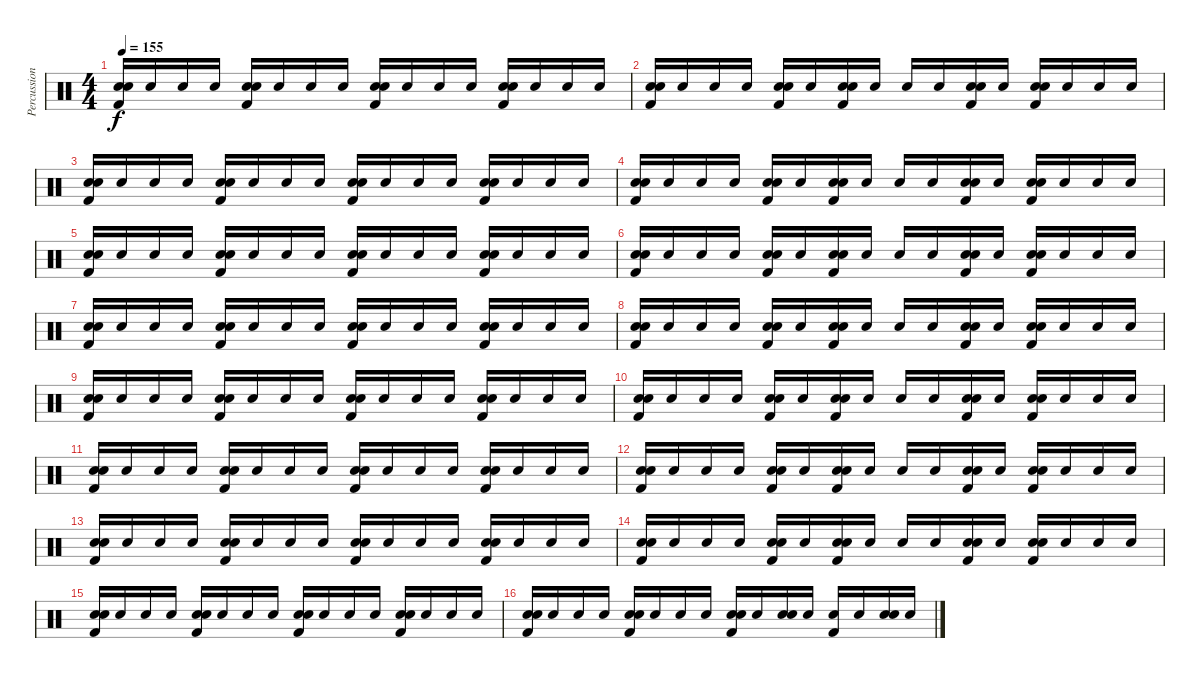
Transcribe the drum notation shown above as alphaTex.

\track ("Percussion" "Percussion") {instrument percussion}
\staff {score}
\articulation defaults
\ts (4 4)
\tempo 155
\clef neutral
\ks c
("Snare (hit) 2" "Snare (hit) 2" "Kick (hit) 2").16{dy f} "Snare (hit) 2".16 "Snare (hit) 2".16 "Snare (hit) 2".16 ("Snare (hit) 2" "Snare (hit) 2" "Kick (hit) 2").16 "Snare (hit) 2".16 "Snare (hit) 2".16 "Snare (hit) 2".16 ("Snare (hit) 2" "Snare (hit) 2" "Kick (hit) 2").16 "Snare (hit) 2".16 "Snare (hit) 2".16 "Snare (hit) 2".16 ("Snare (hit) 2" "Snare (hit) 2" "Kick (hit) 2").16 "Snare (hit) 2".16 "Snare (hit) 2".16 "Snare (hit) 2".16 |
("Snare (hit) 2" "Snare (hit) 2" "Kick (hit) 2").16 "Snare (hit) 2".16 "Snare (hit) 2".16 "Snare (hit) 2".16 ("Snare (hit) 2" "Snare (hit) 2" "Kick (hit) 2").16 "Snare (hit) 2".16 ("Snare (hit) 2" "Snare (hit) 2" "Kick (hit) 2").16 "Snare (hit) 2".16 "Snare (hit) 2".16 "Snare (hit) 2".16 ("Snare (hit) 2" "Snare (hit) 2" "Kick (hit) 2").16 "Snare (hit) 2".16 ("Snare (hit) 2" "Snare (hit) 2" "Kick (hit) 2").16 "Snare (hit) 2".16 "Snare (hit) 2".16 "Snare (hit) 2".16 |
("Snare (hit) 2" "Snare (hit) 2" "Kick (hit) 2").16 "Snare (hit) 2".16 "Snare (hit) 2".16 "Snare (hit) 2".16 ("Snare (hit) 2" "Snare (hit) 2" "Kick (hit) 2").16 "Snare (hit) 2".16 "Snare (hit) 2".16 "Snare (hit) 2".16 ("Snare (hit) 2" "Snare (hit) 2" "Kick (hit) 2").16 "Snare (hit) 2".16 "Snare (hit) 2".16 "Snare (hit) 2".16 ("Snare (hit) 2" "Snare (hit) 2" "Kick (hit) 2").16 "Snare (hit) 2".16 "Snare (hit) 2".16 "Snare (hit) 2".16 |
("Snare (hit) 2" "Snare (hit) 2" "Kick (hit) 2").16 "Snare (hit) 2".16 "Snare (hit) 2".16 "Snare (hit) 2".16 ("Snare (hit) 2" "Snare (hit) 2" "Kick (hit) 2").16 "Snare (hit) 2".16 ("Snare (hit) 2" "Snare (hit) 2" "Kick (hit) 2").16 "Snare (hit) 2".16 "Snare (hit) 2".16 "Snare (hit) 2".16 ("Snare (hit) 2" "Snare (hit) 2" "Kick (hit) 2").16 "Snare (hit) 2".16 ("Snare (hit) 2" "Snare (hit) 2" "Kick (hit) 2").16 "Snare (hit) 2".16 "Snare (hit) 2".16 "Snare (hit) 2".16 |
("Snare (hit) 2" "Snare (hit) 2" "Kick (hit) 2").16 "Snare (hit) 2".16 "Snare (hit) 2".16 "Snare (hit) 2".16 ("Snare (hit) 2" "Snare (hit) 2" "Kick (hit) 2").16 "Snare (hit) 2".16 "Snare (hit) 2".16 "Snare (hit) 2".16 ("Snare (hit) 2" "Snare (hit) 2" "Kick (hit) 2").16 "Snare (hit) 2".16 "Snare (hit) 2".16 "Snare (hit) 2".16 ("Snare (hit) 2" "Snare (hit) 2" "Kick (hit) 2").16 "Snare (hit) 2".16 "Snare (hit) 2".16 "Snare (hit) 2".16 |
("Snare (hit) 2" "Snare (hit) 2" "Kick (hit) 2").16 "Snare (hit) 2".16 "Snare (hit) 2".16 "Snare (hit) 2".16 ("Snare (hit) 2" "Snare (hit) 2" "Kick (hit) 2").16 "Snare (hit) 2".16 ("Snare (hit) 2" "Snare (hit) 2" "Kick (hit) 2").16 "Snare (hit) 2".16 "Snare (hit) 2".16 "Snare (hit) 2".16 ("Snare (hit) 2" "Snare (hit) 2" "Kick (hit) 2").16 "Snare (hit) 2".16 ("Snare (hit) 2" "Snare (hit) 2" "Kick (hit) 2").16 "Snare (hit) 2".16 "Snare (hit) 2".16 "Snare (hit) 2".16 |
("Snare (hit) 2" "Snare (hit) 2" "Kick (hit) 2").16 "Snare (hit) 2".16 "Snare (hit) 2".16 "Snare (hit) 2".16 ("Snare (hit) 2" "Snare (hit) 2" "Kick (hit) 2").16 "Snare (hit) 2".16 "Snare (hit) 2".16 "Snare (hit) 2".16 ("Snare (hit) 2" "Snare (hit) 2" "Kick (hit) 2").16 "Snare (hit) 2".16 "Snare (hit) 2".16 "Snare (hit) 2".16 ("Snare (hit) 2" "Snare (hit) 2" "Kick (hit) 2").16 "Snare (hit) 2".16 "Snare (hit) 2".16 "Snare (hit) 2".16 |
("Snare (hit) 2" "Snare (hit) 2" "Kick (hit) 2").16 "Snare (hit) 2".16 "Snare (hit) 2".16 "Snare (hit) 2".16 ("Snare (hit) 2" "Snare (hit) 2" "Kick (hit) 2").16 "Snare (hit) 2".16 ("Snare (hit) 2" "Snare (hit) 2" "Kick (hit) 2").16 "Snare (hit) 2".16 "Snare (hit) 2".16 "Snare (hit) 2".16 ("Snare (hit) 2" "Snare (hit) 2" "Kick (hit) 2").16 "Snare (hit) 2".16 ("Snare (hit) 2" "Snare (hit) 2" "Kick (hit) 2").16 "Snare (hit) 2".16 "Snare (hit) 2".16 "Snare (hit) 2".16 |
("Snare (hit) 2" "Snare (hit) 2" "Kick (hit) 2").16 "Snare (hit) 2".16 "Snare (hit) 2".16 "Snare (hit) 2".16 ("Snare (hit) 2" "Snare (hit) 2" "Kick (hit) 2").16 "Snare (hit) 2".16 "Snare (hit) 2".16 "Snare (hit) 2".16 ("Snare (hit) 2" "Snare (hit) 2" "Kick (hit) 2").16 "Snare (hit) 2".16 "Snare (hit) 2".16 "Snare (hit) 2".16 ("Snare (hit) 2" "Snare (hit) 2" "Kick (hit) 2").16 "Snare (hit) 2".16 "Snare (hit) 2".16 "Snare (hit) 2".16 |
("Snare (hit) 2" "Snare (hit) 2" "Kick (hit) 2").16 "Snare (hit) 2".16 "Snare (hit) 2".16 "Snare (hit) 2".16 ("Snare (hit) 2" "Snare (hit) 2" "Kick (hit) 2").16 "Snare (hit) 2".16 ("Snare (hit) 2" "Snare (hit) 2" "Kick (hit) 2").16 "Snare (hit) 2".16 "Snare (hit) 2".16 "Snare (hit) 2".16 ("Snare (hit) 2" "Snare (hit) 2" "Kick (hit) 2").16 "Snare (hit) 2".16 ("Snare (hit) 2" "Snare (hit) 2" "Kick (hit) 2").16 "Snare (hit) 2".16 "Snare (hit) 2".16 "Snare (hit) 2".16 |
("Snare (hit) 2" "Snare (hit) 2" "Kick (hit) 2").16 "Snare (hit) 2".16 "Snare (hit) 2".16 "Snare (hit) 2".16 ("Snare (hit) 2" "Snare (hit) 2" "Kick (hit) 2").16 "Snare (hit) 2".16 "Snare (hit) 2".16 "Snare (hit) 2".16 ("Snare (hit) 2" "Snare (hit) 2" "Kick (hit) 2").16 "Snare (hit) 2".16 "Snare (hit) 2".16 "Snare (hit) 2".16 ("Snare (hit) 2" "Snare (hit) 2" "Kick (hit) 2").16 "Snare (hit) 2".16 "Snare (hit) 2".16 "Snare (hit) 2".16 |
("Snare (hit) 2" "Snare (hit) 2" "Kick (hit) 2").16 "Snare (hit) 2".16 "Snare (hit) 2".16 "Snare (hit) 2".16 ("Snare (hit) 2" "Snare (hit) 2" "Kick (hit) 2").16 "Snare (hit) 2".16 ("Snare (hit) 2" "Snare (hit) 2" "Kick (hit) 2").16 "Snare (hit) 2".16 "Snare (hit) 2".16 "Snare (hit) 2".16 ("Snare (hit) 2" "Snare (hit) 2" "Kick (hit) 2").16 "Snare (hit) 2".16 ("Snare (hit) 2" "Snare (hit) 2" "Kick (hit) 2").16 "Snare (hit) 2".16 "Snare (hit) 2".16 "Snare (hit) 2".16 |
("Snare (hit) 2" "Snare (hit) 2" "Kick (hit) 2").16 "Snare (hit) 2".16 "Snare (hit) 2".16 "Snare (hit) 2".16 ("Snare (hit) 2" "Snare (hit) 2" "Kick (hit) 2").16 "Snare (hit) 2".16 "Snare (hit) 2".16 "Snare (hit) 2".16 ("Snare (hit) 2" "Snare (hit) 2" "Kick (hit) 2").16 "Snare (hit) 2".16 "Snare (hit) 2".16 "Snare (hit) 2".16 ("Snare (hit) 2" "Snare (hit) 2" "Kick (hit) 2").16 "Snare (hit) 2".16 "Snare (hit) 2".16 "Snare (hit) 2".16 |
("Snare (hit) 2" "Snare (hit) 2" "Kick (hit) 2").16 "Snare (hit) 2".16 "Snare (hit) 2".16 "Snare (hit) 2".16 ("Snare (hit) 2" "Snare (hit) 2" "Kick (hit) 2").16 "Snare (hit) 2".16 ("Snare (hit) 2" "Snare (hit) 2" "Kick (hit) 2").16 "Snare (hit) 2".16 "Snare (hit) 2".16 "Snare (hit) 2".16 ("Snare (hit) 2" "Snare (hit) 2" "Kick (hit) 2").16 "Snare (hit) 2".16 ("Snare (hit) 2" "Snare (hit) 2" "Kick (hit) 2").16 "Snare (hit) 2".16 "Snare (hit) 2".16 "Snare (hit) 2".16 |
("Snare (hit) 2" "Snare (hit) 2" "Kick (hit) 2").16 "Snare (hit) 2".16 "Snare (hit) 2".16 "Snare (hit) 2".16 ("Snare (hit) 2" "Snare (hit) 2" "Kick (hit) 2").16 "Snare (hit) 2".16 "Snare (hit) 2".16 "Snare (hit) 2".16 ("Snare (hit) 2" "Snare (hit) 2" "Kick (hit) 2").16 "Snare (hit) 2".16 "Snare (hit) 2".16 "Snare (hit) 2".16 ("Snare (hit) 2" "Snare (hit) 2" "Kick (hit) 2").16 "Snare (hit) 2".16 "Snare (hit) 2".16 "Snare (hit) 2".16 |
("Snare (hit) 2" "Snare (hit) 2" "Kick (hit) 2").16 "Snare (hit) 2".16 "Snare (hit) 2".16 "Snare (hit) 2".16 ("Snare (hit) 2" "Snare (hit) 2" "Kick (hit) 2").16 "Snare (hit) 2".16 "Snare (hit) 2".16 "Snare (hit) 2".16 ("Snare (hit) 2" "Snare (hit) 2" "Kick (hit) 2").16 "Snare (hit) 2".16 ("Snare (hit) 2" "Snare (hit) 2").16 "Snare (hit) 2".16 ("Snare (hit) 2" "Kick (hit) 2").16 "Snare (hit) 2".16 ("Snare (hit) 2" "Snare (hit) 2").16 "Snare (hit) 2".16
